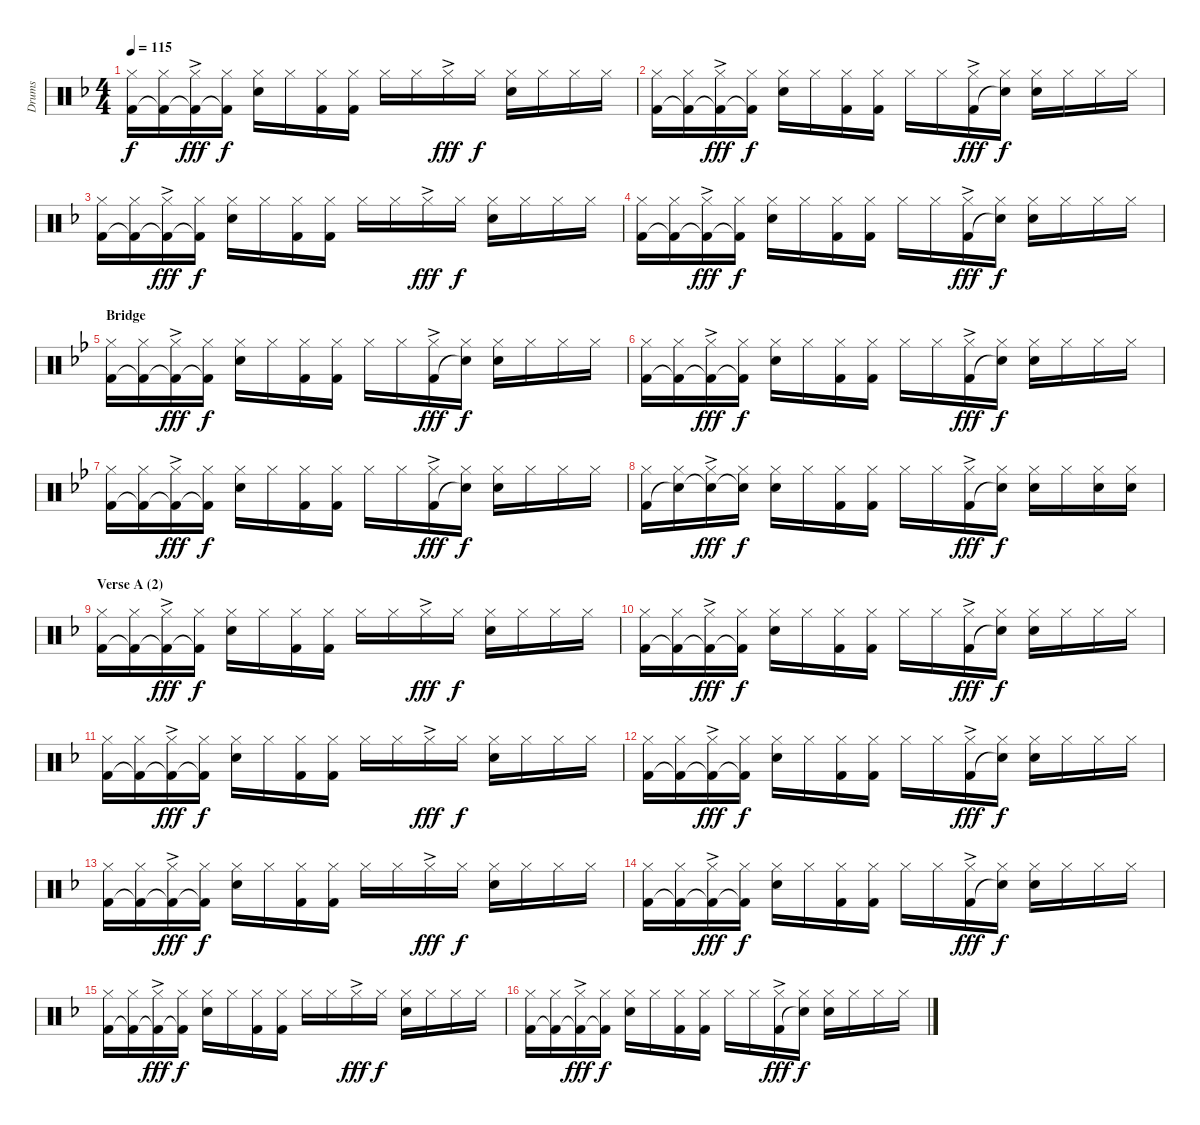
\track ("Drums" "Drums") {instrument percussion}
\staff {score}
\articulation defaults
\ts (4 4)
\tempo 115
\clef neutral
\ks f
("Hi-Hat (closed)" "Kick (hit) 2").16{dy f} ("Hi-Hat (closed)" "Kick (hit) 2"{t}).16 ("Hi-Hat (closed)"{ac} "Kick (hit) 2"{t}).16{dy fff} ("Hi-Hat (closed)" "Kick (hit) 2"{t}).16{dy f} ("Hi-Hat (closed)" "Electric Snare (hit)").16 "Hi-Hat (closed)".16 ("Hi-Hat (closed)" "Kick (hit) 2").16 ("Hi-Hat (closed)" "Kick (hit) 2").16 "Hi-Hat (closed)".16 "Hi-Hat (closed)".16 "Hi-Hat (closed)"{ac}.16{dy fff} "Hi-Hat (closed)".16{dy f} ("Hi-Hat (closed)" "Electric Snare (hit)").16 "Hi-Hat (closed)".16 "Hi-Hat (closed)".16 "Hi-Hat (closed)".16 |
("Hi-Hat (closed)" "Kick (hit) 2").16 ("Hi-Hat (closed)" "Kick (hit) 2"{t}).16 ("Hi-Hat (closed)"{ac} "Kick (hit) 2"{t}).16{dy fff} ("Hi-Hat (closed)" "Kick (hit) 2"{t}).16{dy f} ("Hi-Hat (closed)" "Electric Snare (hit)").16 "Hi-Hat (closed)".16 ("Hi-Hat (closed)" "Kick (hit) 2").16 ("Hi-Hat (closed)" "Kick (hit) 2").16 "Hi-Hat (closed)".16 "Hi-Hat (closed)".16 ("Hi-Hat (closed)"{ac} "Kick (hit) 2").16{dy fff} ("Hi-Hat (closed)" "Snare (hit)"{t}).16{dy f} ("Hi-Hat (closed)" "Electric Snare (hit)").16 "Hi-Hat (closed)".16 "Hi-Hat (closed)".16 "Hi-Hat (closed)".16 |
("Hi-Hat (closed)" "Kick (hit) 2").16 ("Hi-Hat (closed)" "Kick (hit) 2"{t}).16 ("Hi-Hat (closed)"{ac} "Kick (hit) 2"{t}).16{dy fff} ("Hi-Hat (closed)" "Kick (hit) 2"{t}).16{dy f} ("Hi-Hat (closed)" "Electric Snare (hit)").16 "Hi-Hat (closed)".16 ("Hi-Hat (closed)" "Kick (hit) 2").16 ("Hi-Hat (closed)" "Kick (hit) 2").16 "Hi-Hat (closed)".16 "Hi-Hat (closed)".16 "Hi-Hat (closed)"{ac}.16{dy fff} "Hi-Hat (closed)".16{dy f} ("Hi-Hat (closed)" "Electric Snare (hit)").16 "Hi-Hat (closed)".16 "Hi-Hat (closed)".16 "Hi-Hat (closed)".16 |
("Hi-Hat (closed)" "Kick (hit) 2").16 ("Hi-Hat (closed)" "Kick (hit) 2"{t}).16 ("Hi-Hat (closed)"{ac} "Kick (hit) 2"{t}).16{dy fff} ("Hi-Hat (closed)" "Kick (hit) 2"{t}).16{dy f} ("Hi-Hat (closed)" "Electric Snare (hit)").16 "Hi-Hat (closed)".16 ("Hi-Hat (closed)" "Kick (hit) 2").16 ("Hi-Hat (closed)" "Kick (hit) 2").16 "Hi-Hat (closed)".16 "Hi-Hat (closed)".16 ("Hi-Hat (closed)"{ac} "Kick (hit) 2").16{dy fff} ("Hi-Hat (closed)" "Snare (hit)"{t}).16{dy f} ("Hi-Hat (closed)" "Electric Snare (hit)").16 "Hi-Hat (closed)".16 "Hi-Hat (closed)".16 "Hi-Hat (closed)".16 |
\section ("" "Bridge")
\ks bb
("Hi-Hat (closed)" "Kick (hit) 2").16 ("Hi-Hat (closed)" "Kick (hit) 2"{t}).16 ("Hi-Hat (closed)"{ac} "Kick (hit) 2"{t}).16{dy fff} ("Hi-Hat (closed)" "Kick (hit) 2"{t}).16{dy f} ("Hi-Hat (closed)" "Electric Snare (hit)").16 "Hi-Hat (closed)".16 ("Hi-Hat (closed)" "Kick (hit) 2").16 ("Hi-Hat (closed)" "Kick (hit) 2").16 "Hi-Hat (closed)".16 "Hi-Hat (closed)".16 ("Hi-Hat (closed)"{ac} "Kick (hit) 2").16{dy fff} ("Hi-Hat (closed)" "Snare (hit)"{t}).16{dy f} ("Hi-Hat (closed)" "Electric Snare (hit)").16 "Hi-Hat (closed)".16 "Hi-Hat (closed)".16 "Hi-Hat (closed)".16 |
("Hi-Hat (closed)" "Kick (hit) 2").16 ("Hi-Hat (closed)" "Kick (hit) 2"{t}).16 ("Hi-Hat (closed)"{ac} "Kick (hit) 2"{t}).16{dy fff} ("Hi-Hat (closed)" "Kick (hit) 2"{t}).16{dy f} ("Hi-Hat (closed)" "Electric Snare (hit)").16 "Hi-Hat (closed)".16 ("Hi-Hat (closed)" "Kick (hit) 2").16 ("Hi-Hat (closed)" "Kick (hit) 2").16 "Hi-Hat (closed)".16 "Hi-Hat (closed)".16 ("Hi-Hat (closed)"{ac} "Kick (hit) 2").16{dy fff} ("Hi-Hat (closed)" "Snare (hit)"{t}).16{dy f} ("Hi-Hat (closed)" "Electric Snare (hit)").16 "Hi-Hat (closed)".16 "Hi-Hat (closed)".16 "Hi-Hat (closed)".16 |
("Hi-Hat (closed)" "Kick (hit) 2").16 ("Hi-Hat (closed)" "Kick (hit) 2"{t}).16 ("Hi-Hat (closed)"{ac} "Kick (hit) 2"{t}).16{dy fff} ("Hi-Hat (closed)" "Kick (hit) 2"{t}).16{dy f} ("Hi-Hat (closed)" "Electric Snare (hit)").16 "Hi-Hat (closed)".16 ("Hi-Hat (closed)" "Kick (hit) 2").16 ("Hi-Hat (closed)" "Kick (hit) 2").16 "Hi-Hat (closed)".16 "Hi-Hat (closed)".16 ("Hi-Hat (closed)"{ac} "Kick (hit) 2").16{dy fff} ("Hi-Hat (closed)" "Snare (hit)"{t}).16{dy f} ("Hi-Hat (closed)" "Electric Snare (hit)").16 "Hi-Hat (closed)".16 "Hi-Hat (closed)".16 "Hi-Hat (closed)".16 |
("Hi-Hat (closed)" "Kick (hit) 2").16 ("Hi-Hat (closed)" "Snare (hit)"{t}).16 ("Hi-Hat (closed)"{ac} "Snare (hit)"{t}).16{dy fff} ("Hi-Hat (closed)" "Snare (hit)"{t}).16{dy f} ("Hi-Hat (closed)" "Electric Snare (hit)").16 "Hi-Hat (closed)".16 ("Hi-Hat (closed)" "Kick (hit) 2").16 ("Hi-Hat (closed)" "Kick (hit) 2").16 "Hi-Hat (closed)".16 "Hi-Hat (closed)".16 ("Hi-Hat (closed)"{ac} "Kick (hit) 2").16{dy fff} ("Hi-Hat (closed)" "Snare (hit)"{t}).16{dy f} ("Hi-Hat (closed)" "Electric Snare (hit)").16 "Hi-Hat (closed)".16 ("Hi-Hat (closed)" "Electric Snare (hit)").16 ("Hi-Hat (closed)" "Electric Snare (hit)").16 |
\section ("" "Verse A (2)")
\ks f
("Hi-Hat (closed)" "Kick (hit) 2").16 ("Hi-Hat (closed)" "Kick (hit) 2"{t}).16 ("Hi-Hat (closed)"{ac} "Kick (hit) 2"{t}).16{dy fff} ("Hi-Hat (closed)" "Kick (hit) 2"{t}).16{dy f} ("Hi-Hat (closed)" "Electric Snare (hit)").16 "Hi-Hat (closed)".16 ("Hi-Hat (closed)" "Kick (hit) 2").16 ("Hi-Hat (closed)" "Kick (hit) 2").16 "Hi-Hat (closed)".16 "Hi-Hat (closed)".16 "Hi-Hat (closed)"{ac}.16{dy fff} "Hi-Hat (closed)".16{dy f} ("Hi-Hat (closed)" "Electric Snare (hit)").16 "Hi-Hat (closed)".16 "Hi-Hat (closed)".16 "Hi-Hat (closed)".16 |
("Hi-Hat (closed)" "Kick (hit) 2").16 ("Hi-Hat (closed)" "Kick (hit) 2"{t}).16 ("Hi-Hat (closed)"{ac} "Kick (hit) 2"{t}).16{dy fff} ("Hi-Hat (closed)" "Kick (hit) 2"{t}).16{dy f} ("Hi-Hat (closed)" "Electric Snare (hit)").16 "Hi-Hat (closed)".16 ("Hi-Hat (closed)" "Kick (hit) 2").16 ("Hi-Hat (closed)" "Kick (hit) 2").16 "Hi-Hat (closed)".16 "Hi-Hat (closed)".16 ("Hi-Hat (closed)"{ac} "Kick (hit) 2").16{dy fff} ("Hi-Hat (closed)" "Snare (hit)"{t}).16{dy f} ("Hi-Hat (closed)" "Electric Snare (hit)").16 "Hi-Hat (closed)".16 "Hi-Hat (closed)".16 "Hi-Hat (closed)".16 |
("Hi-Hat (closed)" "Kick (hit) 2").16 ("Hi-Hat (closed)" "Kick (hit) 2"{t}).16 ("Hi-Hat (closed)"{ac} "Kick (hit) 2"{t}).16{dy fff} ("Hi-Hat (closed)" "Kick (hit) 2"{t}).16{dy f} ("Hi-Hat (closed)" "Electric Snare (hit)").16 "Hi-Hat (closed)".16 ("Hi-Hat (closed)" "Kick (hit) 2").16 ("Hi-Hat (closed)" "Kick (hit) 2").16 "Hi-Hat (closed)".16 "Hi-Hat (closed)".16 "Hi-Hat (closed)"{ac}.16{dy fff} "Hi-Hat (closed)".16{dy f} ("Hi-Hat (closed)" "Electric Snare (hit)").16 "Hi-Hat (closed)".16 "Hi-Hat (closed)".16 "Hi-Hat (closed)".16 |
("Hi-Hat (closed)" "Kick (hit) 2").16 ("Hi-Hat (closed)" "Kick (hit) 2"{t}).16 ("Hi-Hat (closed)"{ac} "Kick (hit) 2"{t}).16{dy fff} ("Hi-Hat (closed)" "Kick (hit) 2"{t}).16{dy f} ("Hi-Hat (closed)" "Electric Snare (hit)").16 "Hi-Hat (closed)".16 ("Hi-Hat (closed)" "Kick (hit) 2").16 ("Hi-Hat (closed)" "Kick (hit) 2").16 "Hi-Hat (closed)".16 "Hi-Hat (closed)".16 ("Hi-Hat (closed)"{ac} "Kick (hit) 2").16{dy fff} ("Hi-Hat (closed)" "Snare (hit)"{t}).16{dy f} ("Hi-Hat (closed)" "Electric Snare (hit)").16 "Hi-Hat (closed)".16 "Hi-Hat (closed)".16 "Hi-Hat (closed)".16 |
("Hi-Hat (closed)" "Kick (hit) 2").16 ("Hi-Hat (closed)" "Kick (hit) 2"{t}).16 ("Hi-Hat (closed)"{ac} "Kick (hit) 2"{t}).16{dy fff} ("Hi-Hat (closed)" "Kick (hit) 2"{t}).16{dy f} ("Hi-Hat (closed)" "Electric Snare (hit)").16 "Hi-Hat (closed)".16 ("Hi-Hat (closed)" "Kick (hit) 2").16 ("Hi-Hat (closed)" "Kick (hit) 2").16 "Hi-Hat (closed)".16 "Hi-Hat (closed)".16 "Hi-Hat (closed)"{ac}.16{dy fff} "Hi-Hat (closed)".16{dy f} ("Hi-Hat (closed)" "Electric Snare (hit)").16 "Hi-Hat (closed)".16 "Hi-Hat (closed)".16 "Hi-Hat (closed)".16 |
("Hi-Hat (closed)" "Kick (hit) 2").16 ("Hi-Hat (closed)" "Kick (hit) 2"{t}).16 ("Hi-Hat (closed)"{ac} "Kick (hit) 2"{t}).16{dy fff} ("Hi-Hat (closed)" "Kick (hit) 2"{t}).16{dy f} ("Hi-Hat (closed)" "Electric Snare (hit)").16 "Hi-Hat (closed)".16 ("Hi-Hat (closed)" "Kick (hit) 2").16 ("Hi-Hat (closed)" "Kick (hit) 2").16 "Hi-Hat (closed)".16 "Hi-Hat (closed)".16 ("Hi-Hat (closed)"{ac} "Kick (hit) 2").16{dy fff} ("Hi-Hat (closed)" "Snare (hit)"{t}).16{dy f} ("Hi-Hat (closed)" "Electric Snare (hit)").16 "Hi-Hat (closed)".16 "Hi-Hat (closed)".16 "Hi-Hat (closed)".16 |
("Hi-Hat (closed)" "Kick (hit) 2").16 ("Hi-Hat (closed)" "Kick (hit) 2"{t}).16 ("Hi-Hat (closed)"{ac} "Kick (hit) 2"{t}).16{dy fff} ("Hi-Hat (closed)" "Kick (hit) 2"{t}).16{dy f} ("Hi-Hat (closed)" "Electric Snare (hit)").16 "Hi-Hat (closed)".16 ("Hi-Hat (closed)" "Kick (hit) 2").16 ("Hi-Hat (closed)" "Kick (hit) 2").16 "Hi-Hat (closed)".16 "Hi-Hat (closed)".16 "Hi-Hat (closed)"{ac}.16{dy fff} "Hi-Hat (closed)".16{dy f} ("Hi-Hat (closed)" "Electric Snare (hit)").16 "Hi-Hat (closed)".16 "Hi-Hat (closed)".16 "Hi-Hat (closed)".16 |
("Hi-Hat (closed)" "Kick (hit) 2").16 ("Hi-Hat (closed)" "Kick (hit) 2"{t}).16 ("Hi-Hat (closed)"{ac} "Kick (hit) 2"{t}).16{dy fff} ("Hi-Hat (closed)" "Kick (hit) 2"{t}).16{dy f} ("Hi-Hat (closed)" "Electric Snare (hit)").16 "Hi-Hat (closed)".16 ("Hi-Hat (closed)" "Kick (hit) 2").16 ("Hi-Hat (closed)" "Kick (hit) 2").16 "Hi-Hat (closed)".16 "Hi-Hat (closed)".16 ("Hi-Hat (closed)"{ac} "Kick (hit) 2").16{dy fff} ("Hi-Hat (closed)" "Snare (hit)"{t}).16{dy f} ("Hi-Hat (closed)" "Electric Snare (hit)").16 "Hi-Hat (closed)".16 "Hi-Hat (closed)".16 "Hi-Hat (closed)".16
